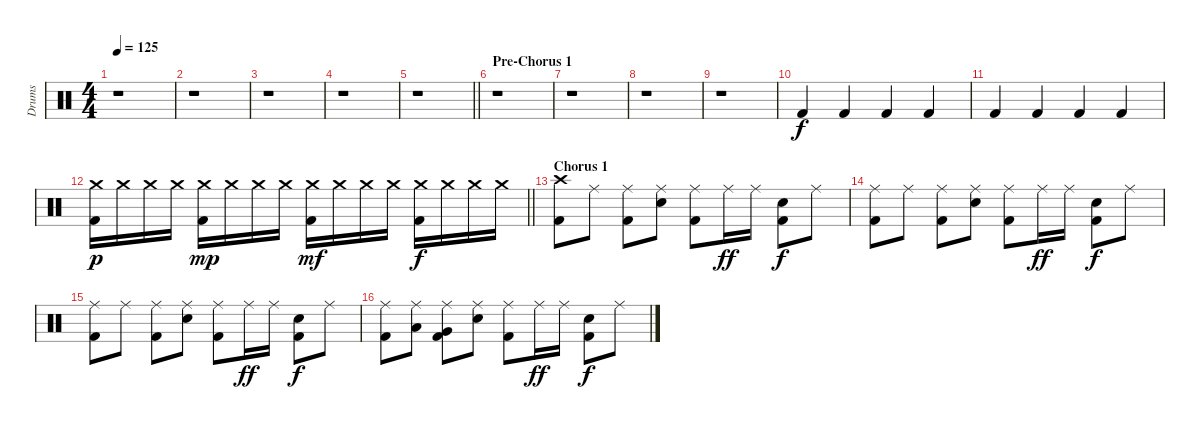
\track ("Drums" "Drums") {instrument percussion}
\staff {score}
\articulation defaults
\ts (4 4)
\tempo 125
\clef neutral
\ks c
r.1{dy f} |
r.1 |
r.1 |
r.1 |
\barLineRight lightlight
r.1 |
\section ("" "Pre-Chorus 1")
r.1 |
r.1 |
r.1 |
r.1 |
"Kick (hit) 2".4 "Kick (hit) 2".4 "Kick (hit) 2".4 "Kick (hit) 2".4 |
"Kick (hit) 2".4 "Kick (hit) 2".4 "Kick (hit) 2".4 "Kick (hit) 2".4 |
\barLineRight lightlight
("Crash medium (hit)" "Kick (hit) 2").16{dy p} "Crash medium (hit)".16 "Crash medium (hit)".16 "Crash medium (hit)".16 ("Crash medium (hit)" "Kick (hit) 2").16{dy mp} "Crash medium (hit)".16 "Crash medium (hit)".16 "Crash medium (hit)".16 ("Crash medium (hit)" "Kick (hit) 2").16{dy mf} "Crash medium (hit)".16 "Crash medium (hit)".16 "Crash medium (hit)".16 ("Crash medium (hit)" "Kick (hit) 2").16{dy f} "Crash medium (hit)".16 "Crash medium (hit)".16 "Crash medium (hit)".16 |
\section ("" "Chorus 1")
("Crash high (hit)" "Kick (hit) 2").8 "Ride (middle)".8 ("Ride (middle)" "Kick (hit) 2").8 ("Ride (middle)" "Electric Snare (hit)").8 ("Ride (middle)" "Kick (hit) 2").8 "Ride (middle)".16{dy ff} "Ride (middle)".16 ("Electric Snare (hit)" "Kick (hit) 2").8{dy f} "Ride (middle)".8 |
("Ride (middle)" "Kick (hit) 2").8 "Ride (middle)".8 ("Ride (middle)" "Kick (hit) 2").8 ("Ride (middle)" "Electric Snare (hit)").8 ("Ride (middle)" "Kick (hit) 2").8 "Ride (middle)".16{dy ff} "Ride (middle)".16 ("Electric Snare (hit)" "Kick (hit) 2").8{dy f} "Ride (middle)".8 |
("Ride (middle)" "Kick (hit) 2").8 "Ride (middle)".8 ("Ride (middle)" "Kick (hit) 2").8 ("Ride (middle)" "Electric Snare (hit)").8 ("Ride (middle)" "Kick (hit) 2").8 "Ride (middle)".16{dy ff} "Ride (middle)".16 ("Electric Snare (hit)" "Kick (hit) 2").8{dy f} "Ride (middle)".8 |
("Ride (middle)" "Kick (hit) 2").8 ("Ride (middle)" "Low Tom (hit)").8 ("Ride (middle)" "Very Low Tom (hit)" "Kick (hit) 2").8 ("Ride (middle)" "Electric Snare (hit)").8 ("Ride (middle)" "Kick (hit) 2").8 "Ride (middle)".16{dy ff} "Ride (middle)".16 ("Electric Snare (hit)" "Kick (hit) 2").8{dy f} "Ride (middle)".8
